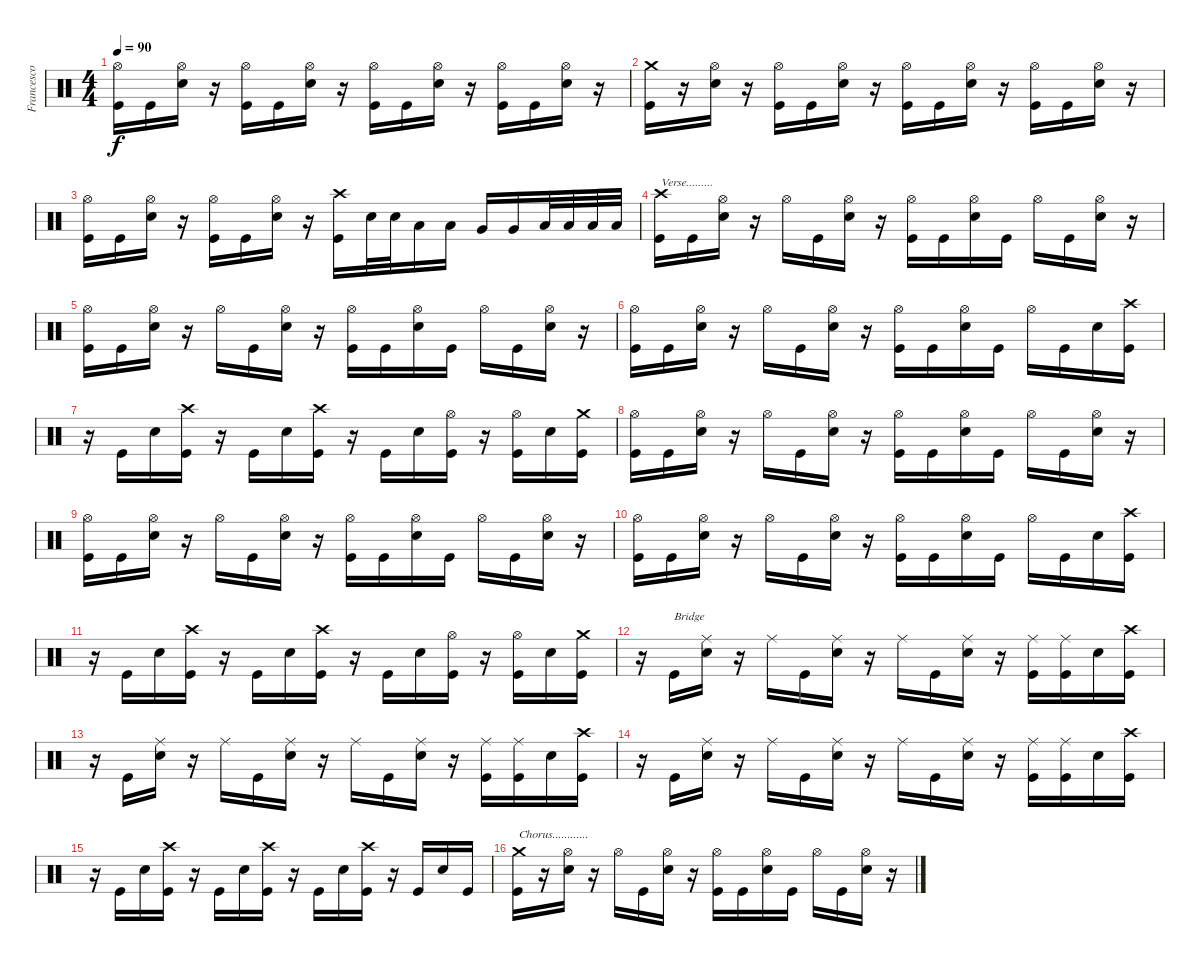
\track ("Francesco Jovino" "Francesco ") {instrument percussion}
\staff {score}
\articulation defaults
\ts (4 4)
\tempo 90
\clef neutral
\ks c
("Hi-Hat (open)" "Kick (hit)").16{dy f} "Kick (hit)".16 ("Snare (hit) 2" "Hi-Hat (open)").16 r.16 ("Hi-Hat (open)" "Kick (hit)").16 "Kick (hit)".16 ("Snare (hit) 2" "Hi-Hat (open)").16 r.16 ("Kick (hit)" "Hi-Hat (open)").16 "Kick (hit)".16 ("Snare (hit) 2" "Hi-Hat (open)").16 r.16 ("Hi-Hat (open)" "Kick (hit)").16 "Kick (hit)".16 ("Snare (hit) 2" "Hi-Hat (open)").16 r.16 |
("Kick (hit)" "Crash medium (hit)").16 r.16 ("Snare (hit) 2" "Hi-Hat (open)").16 r.16 ("Hi-Hat (open)" "Kick (hit)").16 "Kick (hit)".16 ("Snare (hit) 2" "Hi-Hat (open)").16 r.16 ("Kick (hit)" "Hi-Hat (open)").16 "Kick (hit)".16 ("Snare (hit) 2" "Hi-Hat (open)").16 r.16 ("Hi-Hat (open)" "Kick (hit)").16 "Kick (hit)".16 ("Snare (hit) 2" "Hi-Hat (open)").16 r.16 |
("Kick (hit)" "Hi-Hat (open)").16 "Kick (hit)".16 ("Snare (hit) 2" "Hi-Hat (open)").16 r.16 ("Hi-Hat (open)" "Kick (hit)").16 "Kick (hit)".16 ("Snare (hit) 2" "Hi-Hat (open)").16 r.16 ("Kick (hit)" "Crash high (hit)").16 "Snare (hit) 2".32 "Snare (hit) 2".32 "Low Tom (hit)".16 "Low Tom (hit)".16 "Very Low Tom (hit)".16 "Very Low Tom (hit)".16 "Low Floor Tom (hit)".32 "Low Floor Tom (hit)".32 "Low Floor Tom (hit)".32 "Low Floor Tom (hit)".32 |
("Kick (hit)" "Crash high (hit)").16{txt "Verse........."} "Kick (hit)".16 ("Snare (hit) 2" "Hi-Hat (open)").16 r.16 "Hi-Hat (open)".16 "Kick (hit)".16 ("Snare (hit) 2" "Hi-Hat (open)").16 r.16 ("Kick (hit)" "Hi-Hat (open)").16 "Kick (hit)".16 ("Snare (hit) 2" "Hi-Hat (open)").16 "Kick (hit)".16 "Hi-Hat (open)".16 "Kick (hit)".16 ("Snare (hit) 2" "Hi-Hat (open)").16 r.16 |
("Kick (hit)" "Hi-Hat (open)").16 "Kick (hit)".16 ("Snare (hit) 2" "Hi-Hat (open)").16 r.16 "Hi-Hat (open)".16 "Kick (hit)".16 ("Snare (hit) 2" "Hi-Hat (open)").16 r.16 ("Kick (hit)" "Hi-Hat (open)").16 "Kick (hit)".16 ("Snare (hit) 2" "Hi-Hat (open)").16 "Kick (hit)".16 "Hi-Hat (open)".16 "Kick (hit)".16 ("Snare (hit) 2" "Hi-Hat (open)").16 r.16 |
("Hi-Hat (open)" "Kick (hit)").16 "Kick (hit)".16 ("Snare (hit) 2" "Hi-Hat (open)").16 r.16 "Hi-Hat (open)".16 "Kick (hit)".16 ("Snare (hit) 2" "Hi-Hat (open)").16 r.16 ("Kick (hit)" "Hi-Hat (open)").16 "Kick (hit)".16 ("Snare (hit) 2" "Hi-Hat (open)").16 "Kick (hit)".16 "Hi-Hat (open)".16 "Kick (hit)".16 "Snare (hit) 2".16 ("Kick (hit)" "Crash high (hit)").16 |
r.16 "Kick (hit)".16 "Snare (hit) 2".16 ("Crash high (hit)" "Kick (hit)").16 r.16 "Kick (hit)".16 "Snare (hit) 2".16 ("Crash high (hit)" "Kick (hit)").16 r.16 "Kick (hit)".16 "Snare (hit) 2".16 ("Kick (hit)" "Hi-Hat (open)").16 r.16 ("Kick (hit)" "Hi-Hat (open)").16 "Snare (hit) 2".16 ("Kick (hit)" "Crash medium (hit)").16 |
("Kick (hit)" "Hi-Hat (open)").16 "Kick (hit)".16 ("Snare (hit) 2" "Hi-Hat (open)").16 r.16 "Hi-Hat (open)".16 "Kick (hit)".16 ("Snare (hit) 2" "Hi-Hat (open)").16 r.16 ("Kick (hit)" "Hi-Hat (open)").16 "Kick (hit)".16 ("Snare (hit) 2" "Hi-Hat (open)").16 "Kick (hit)".16 "Hi-Hat (open)".16 "Kick (hit)".16 ("Snare (hit) 2" "Hi-Hat (open)").16 r.16 |
("Hi-Hat (open)" "Kick (hit)").16 "Kick (hit)".16 ("Snare (hit) 2" "Hi-Hat (open)").16 r.16 "Hi-Hat (open)".16 "Kick (hit)".16 ("Snare (hit) 2" "Hi-Hat (open)").16 r.16 ("Kick (hit)" "Hi-Hat (open)").16 "Kick (hit)".16 ("Snare (hit) 2" "Hi-Hat (open)").16 "Kick (hit)".16 "Hi-Hat (open)".16 "Kick (hit)".16 ("Snare (hit) 2" "Hi-Hat (open)").16 r.16 |
("Hi-Hat (open)" "Kick (hit)").16 "Kick (hit)".16 ("Snare (hit) 2" "Hi-Hat (open)").16 r.16 "Hi-Hat (open)".16 "Kick (hit)".16 ("Snare (hit) 2" "Hi-Hat (open)").16 r.16 ("Kick (hit)" "Hi-Hat (open)").16 "Kick (hit)".16 ("Snare (hit) 2" "Hi-Hat (open)").16 "Kick (hit)".16 "Hi-Hat (open)".16 "Kick (hit)".16 "Snare (hit) 2".16 ("Kick (hit)" "Crash high (hit)").16 |
r.16 "Kick (hit)".16 "Snare (hit) 2".16 ("Crash high (hit)" "Kick (hit)").16 r.16 "Kick (hit)".16 "Snare (hit) 2".16 ("Crash high (hit)" "Kick (hit)").16 r.16 "Kick (hit)".16 "Snare (hit) 2".16 ("Kick (hit)" "Hi-Hat (open)").16 r.16 ("Kick (hit)" "Hi-Hat (open)").16 "Snare (hit) 2".16 ("Kick (hit)" "Crash medium (hit)").16 |
r.16 "Kick (hit)".16{txt "Bridge"} ("Snare (hit) 2" "Ride (middle)").16 r.16 "Ride (middle)".16 "Kick (hit)".16 ("Snare (hit) 2" "Ride (middle)").16 r.16 "Ride (middle)".16 "Kick (hit)".16 ("Snare (hit) 2" "Ride (middle)").16 r.16 ("Kick (hit)" "Ride (middle)").16 ("Kick (hit)" "Ride (middle)").16 "Snare (hit) 2".16 ("Kick (hit)" "Crash high (hit)").16 |
r.16 "Kick (hit)".16 ("Snare (hit) 2" "Ride (middle)").16 r.16 "Ride (middle)".16 "Kick (hit)".16 ("Snare (hit) 2" "Ride (middle)").16 r.16 "Ride (middle)".16 "Kick (hit)".16 ("Snare (hit) 2" "Ride (middle)").16 r.16 ("Kick (hit)" "Ride (middle)").16 ("Kick (hit)" "Ride (middle)").16 "Snare (hit) 2".16 ("Kick (hit)" "Crash high (hit)").16 |
r.16 "Kick (hit)".16 ("Snare (hit) 2" "Ride (middle)").16 r.16 "Ride (middle)".16 "Kick (hit)".16 ("Snare (hit) 2" "Ride (middle)").16 r.16 "Ride (middle)".16 "Kick (hit)".16 ("Snare (hit) 2" "Ride (middle)").16 r.16 ("Kick (hit)" "Ride (middle)").16 ("Kick (hit)" "Ride (middle)").16 "Snare (hit) 2".16 ("Kick (hit)" "Crash high (hit)").16 |
r.16 "Kick (hit)".16 "Snare (hit) 2".16 ("Crash high (hit)" "Kick (hit)").16 r.16 "Kick (hit)".16 "Snare (hit) 2".16 ("Crash high (hit)" "Kick (hit)").16 r.16 "Kick (hit)".16 "Snare (hit) 2".16 ("Kick (hit)" "Crash high (hit)").16 r.16 "Kick (hit)".16 "Snare (hit) 2".16 "Kick (hit)".16 |
("Kick (hit)" "Crash medium (hit)").16{txt "Chorus............"} r.16 ("Snare (hit) 2" "Hi-Hat (open)").16 r.16 "Hi-Hat (open)".16 "Kick (hit)".16 ("Snare (hit) 2" "Hi-Hat (open)").16 r.16 ("Kick (hit)" "Hi-Hat (open)").16 "Kick (hit)".16 ("Snare (hit) 2" "Hi-Hat (open)").16 "Kick (hit)".16 "Hi-Hat (open)".16 "Kick (hit)".16 ("Snare (hit) 2" "Hi-Hat (open)").16 r.16
